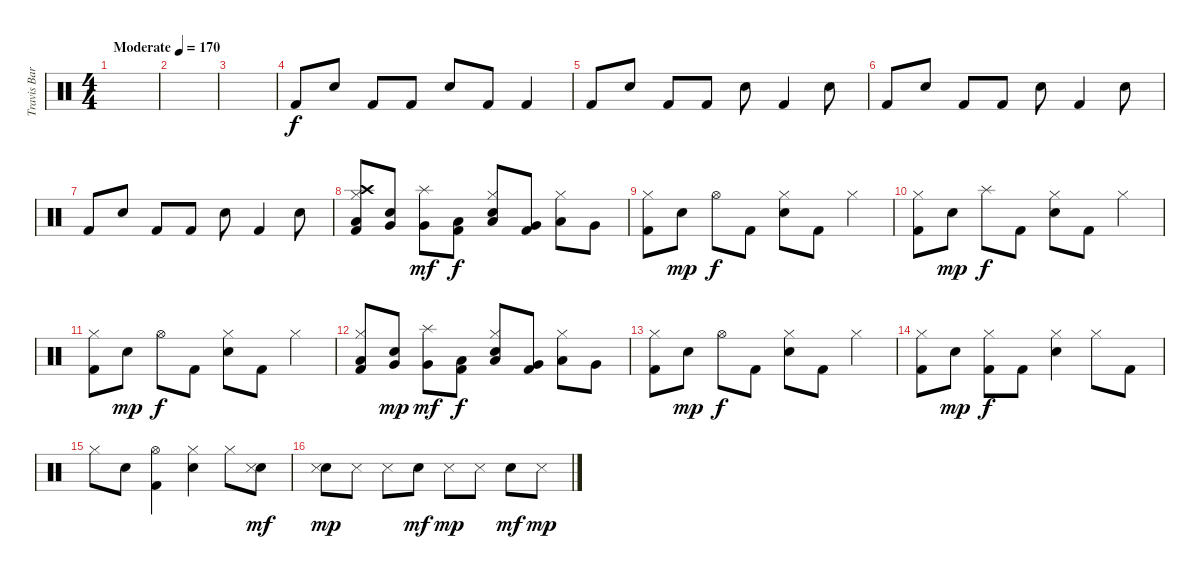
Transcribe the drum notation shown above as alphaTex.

\track ("Travis Barker" "Travis Bar") {instrument percussion}
\staff {score}
\articulation defaults
\ts (4 4)
\tempo (170 "Moderate")
\clef neutral
\ks c
|
|
|
"Kick (hit) 2".8 "Electric Snare (hit)".8 "Kick (hit) 2".8 "Kick (hit) 2".8 "Electric Snare (hit)".8 "Kick (hit) 2".8 "Kick (hit) 2".4 |
"Kick (hit) 2".8 "Electric Snare (hit)".8 "Kick (hit) 2".8 "Kick (hit) 2".8 "Electric Snare (hit)".8 "Kick (hit) 2".4 "Electric Snare (hit)".8 |
"Kick (hit) 2".8 "Electric Snare (hit)".8 "Kick (hit) 2".8 "Kick (hit) 2".8 "Electric Snare (hit)".8 "Kick (hit) 2".4 "Electric Snare (hit)".8 |
"Kick (hit) 2".8 "Electric Snare (hit)".8 "Kick (hit) 2".8 "Kick (hit) 2".8 "Electric Snare (hit)".8 "Kick (hit) 2".4 "Electric Snare (hit)".8 |
("Crash high (hit)" "Hi-Hat (closed)" "Low Floor Tom (hit)" "Kick (hit) 2").8 ("Very Low Tom (hit)" "Electric Snare (hit)").8 ("Splash (hit)" "Very Low Tom (hit)").8{dy mf} ("Low Floor Tom (hit)" "Kick (hit) 2").8{dy f} ("Hi-Hat (closed)" "Low Floor Tom (hit)" "Electric Snare (hit)").8 ("Very Low Tom (hit)" "Kick (hit) 2").8 ("Hi-Hat (closed)" "Low Tom (hit)").8 "Very Low Tom (hit)".8 |
("Hi-Hat (closed)" "Kick (hit) 2").8 "Electric Snare (hit)".8{dy mp} "Hi-Hat (open)".8{dy f} "Kick (hit) 2".8 ("Hi-Hat (closed)" "Electric Snare (hit)").8 "Kick (hit) 2".8 "Hi-Hat (closed)".4 |
("Hi-Hat (closed)" "Kick (hit) 2").8 "Electric Snare (hit)".8{dy mp} "Splash (hit)".8{dy f} "Kick (hit) 2".8 ("Hi-Hat (closed)" "Electric Snare (hit)").8 "Kick (hit) 2".8 "Hi-Hat (closed)".4 |
("Hi-Hat (closed)" "Kick (hit) 2").8 "Electric Snare (hit)".8{dy mp} "Hi-Hat (open)".8{dy f} "Kick (hit) 2".8 ("Hi-Hat (closed)" "Electric Snare (hit)").8 "Kick (hit) 2".8 "Hi-Hat (closed)".4 |
("Hi-Hat (closed)" "Low Floor Tom (hit)" "Kick (hit) 2").8 ("Very Low Tom (hit)" "Electric Snare (hit)").8{dy mp} ("Splash (hit)" "Very Low Tom (hit)").8{dy mf} ("Low Floor Tom (hit)" "Kick (hit) 2").8{dy f} ("Hi-Hat (closed)" "Low Floor Tom (hit)" "Electric Snare (hit)").8 ("Very Low Tom (hit)" "Kick (hit) 2").8 ("Hi-Hat (closed)" "Low Tom (hit)").8 "Very Low Tom (hit)".8 |
("Hi-Hat (closed)" "Kick (hit) 2").8 "Electric Snare (hit)".8{dy mp} "Hi-Hat (open)".8{dy f} "Kick (hit) 2".8 ("Hi-Hat (closed)" "Electric Snare (hit)").8 "Kick (hit) 2".8 "Hi-Hat (closed)".4 |
("Hi-Hat (closed)" "Kick (hit) 2").8 "Electric Snare (hit)".8{dy mp} ("Hi-Hat (closed)" "Kick (hit) 2").8{dy f} "Kick (hit) 2".8 ("Hi-Hat (closed)" "Electric Snare (hit)").4 "Hi-Hat (closed)".8 "Kick (hit) 2".8 |
"Hi-Hat (closed)".8 "Electric Snare (hit)".8 ("Hi-Hat (open)" "Kick (hit) 2").4 ("Hi-Hat (closed)" "Electric Snare (hit)").4 "Hi-Hat (closed)".8 ("Electric Snare (hit)" "Snare (side stick) 3").8{dy mf} |
("Electric Snare (hit)" "Snare (side stick) 3").8{dy mp} "Snare (side stick) 3".8 "Snare (side stick) 3".8 "Electric Snare (hit)".8{dy mf} "Snare (side stick) 3".8{dy mp} "Snare (side stick) 3".8 "Electric Snare (hit)".8{dy mf} "Snare (side stick) 3".8{dy mp}
